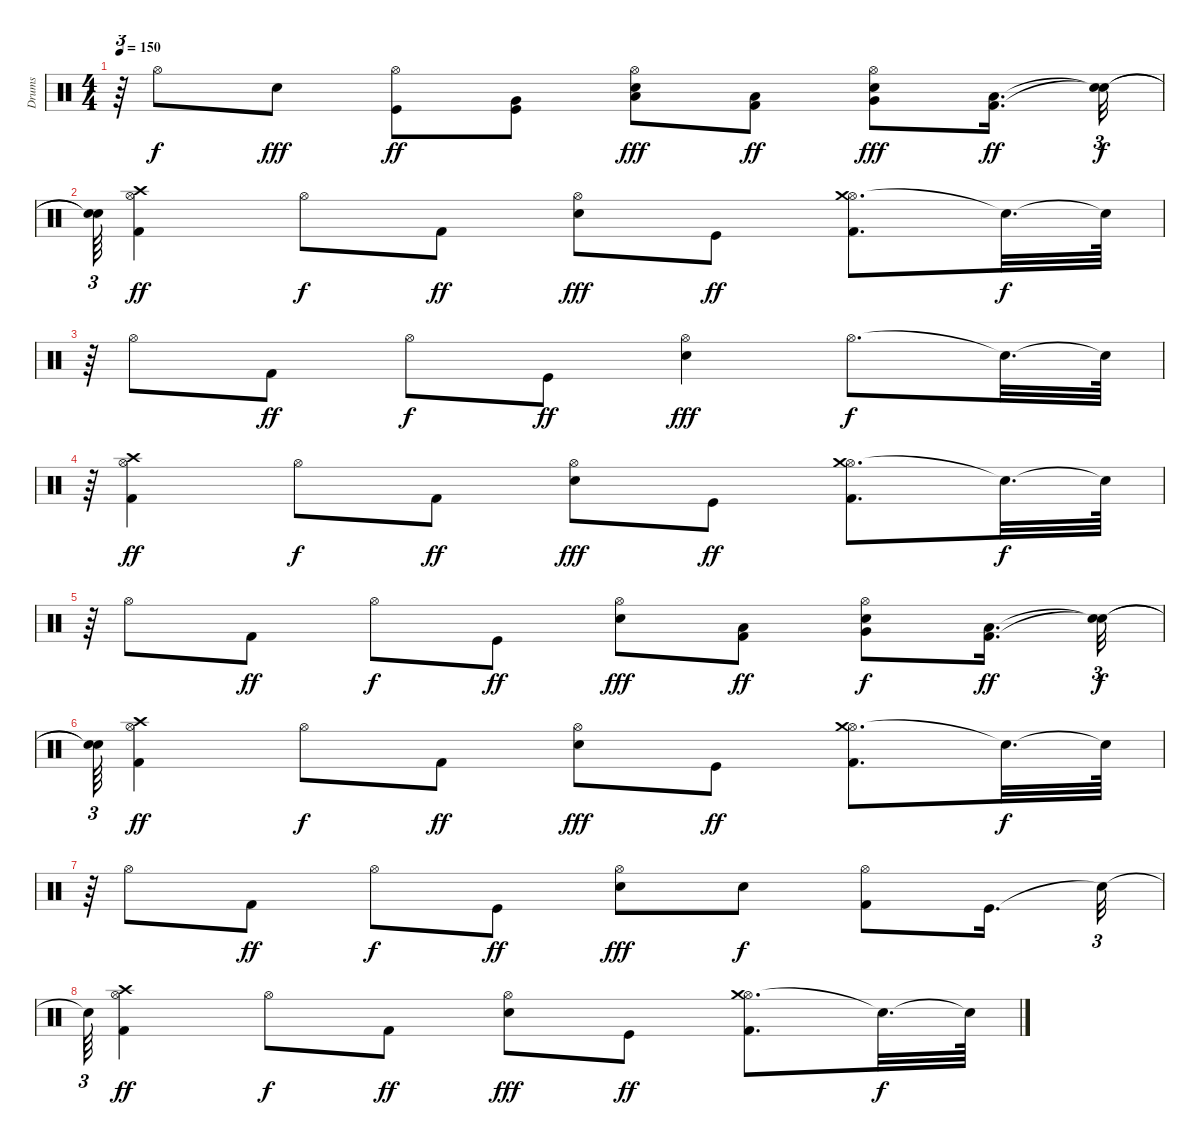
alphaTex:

\track ("Drums" "Drums") {instrument percussion}
\staff {score}
\articulation defaults
\ts (4 4)
\tempo 150
\clef neutral
\ks c
r.64{tu (3 2) dy f} "Hi-Hat (open)".8 "Electric Snare (hit)".8{dy fff} ("Hi-Hat (open)" "Kick (hit)").8{dy ff} ("Very Low Tom (hit)" "Kick (hit)").8 ("Hi-Hat (open)" "Electric Snare (hit)" "Low Tom (hit)").8{dy fff} ("Low Tom (hit)" "Kick (hit) 2").8{dy ff} ("Hi-Hat (open)" "Very Low Tom (hit)" "Electric Snare (hit)").8{dy fff} ("Low Floor Tom (hit)" "Kick (hit) 2").16{d dy ff} ("Snare (hit)"{t} "Snare (hit)"{t}).32{tu (3 2) dy f} |
("Snare (hit)"{t} "Snare (hit)"{t}).64{tu (3 2)} ("Hi-Hat (open)" "Crash high (hit)" "Kick (hit) 2").4{dy ff} "Hi-Hat (open)".8{dy f} "Kick (hit) 2".8{dy ff} ("Hi-Hat (open)" "Electric Snare (hit)").8{dy fff} "Kick (hit)".8{dy ff} ("Hi-Hat (open)" "Crash medium (hit)" "Kick (hit) 2").8{d} "Snare (hit)"{t}.32{d dy f} "Snare (hit)"{t}.64 |
r.64{tu (3 2)} "Hi-Hat (open)".8 "Kick (hit) 2".8{dy ff} "Hi-Hat (open)".8{dy f} "Kick (hit)".8{dy ff} ("Hi-Hat (open)" "Electric Snare (hit)").4{dy fff} "Hi-Hat (open)".8{d dy f} "Snare (hit)"{t}.32{d} "Snare (hit)"{t}.64 |
r.64{tu (3 2)} ("Hi-Hat (open)" "Crash high (hit)" "Kick (hit) 2").4{dy ff} "Hi-Hat (open)".8{dy f} "Kick (hit) 2".8{dy ff} ("Hi-Hat (open)" "Electric Snare (hit)").8{dy fff} "Kick (hit)".8{dy ff} ("Hi-Hat (open)" "Crash medium (hit)" "Kick (hit) 2").8{d} "Snare (hit)"{t}.32{d dy f} "Snare (hit)"{t}.64 |
r.64{tu (3 2)} "Hi-Hat (open)".8 "Kick (hit) 2".8{dy ff} "Hi-Hat (open)".8{dy f} "Kick (hit)".8{dy ff} ("Hi-Hat (open)" "Electric Snare (hit)").8{dy fff} ("Low Tom (hit)" "Kick (hit) 2").8{dy ff} ("Electric Snare (hit)" "Very Low Tom (hit)" "Hi-Hat (open)").8{dy f} ("Low Floor Tom (hit)" "Kick (hit) 2").16{d dy ff} ("Snare (hit)"{t} "Snare (hit)"{t}).32{tu (3 2) dy f} |
("Snare (hit)"{t} "Snare (hit)"{t}).64{tu (3 2)} ("Hi-Hat (open)" "Crash high (hit)" "Kick (hit) 2").4{dy ff} "Hi-Hat (open)".8{dy f} "Kick (hit) 2".8{dy ff} ("Hi-Hat (open)" "Electric Snare (hit)").8{dy fff} "Kick (hit)".8{dy ff} ("Hi-Hat (open)" "Crash medium (hit)" "Kick (hit) 2").8{d} "Snare (hit)"{t}.32{d dy f} "Snare (hit)"{t}.64 |
r.64{tu (3 2)} "Hi-Hat (open)".8 "Kick (hit) 2".8{dy ff} "Hi-Hat (open)".8{dy f} "Kick (hit)".8{dy ff} ("Hi-Hat (open)" "Electric Snare (hit)").8{dy fff} "Electric Snare (hit)".8{dy f} ("Hi-Hat (open)" "Kick (hit) 2").8 "Kick (hit)".16{d} "Snare (hit)"{t}.32{tu (3 2)} |
"Snare (hit)"{t}.64{tu (3 2)} ("Hi-Hat (open)" "Crash high (hit)" "Kick (hit) 2").4{dy ff} "Hi-Hat (open)".8{dy f} "Kick (hit) 2".8{dy ff} ("Hi-Hat (open)" "Electric Snare (hit)").8{dy fff} "Kick (hit)".8{dy ff} ("Hi-Hat (open)" "Crash medium (hit)" "Kick (hit) 2").8{d} "Snare (hit)"{t}.32{d dy f} "Snare (hit)"{t}.64
